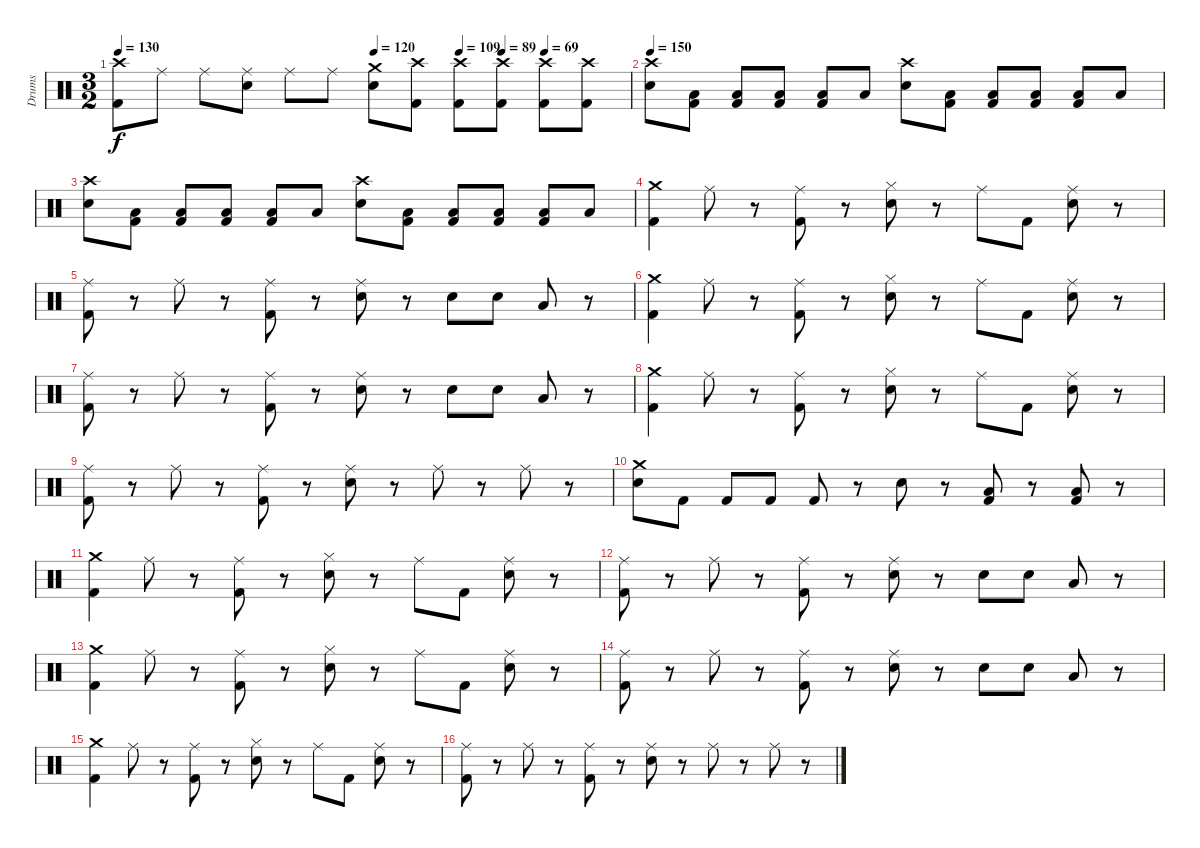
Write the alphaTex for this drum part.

\track ("Drums" "Drums") {instrument percussion}
\staff {score}
\articulation defaults
\ts (3 2)
\tempo 130
\tempo (120 0.5)
\tempo (109 0.6666666666666666)
\tempo (89 0.75)
\tempo (69 0.8333333333333334)
\clef neutral
\ks c
("Crash high (hit)" "Kick (hit) 2").8{dy f} "Ride (middle)".8 "Ride (middle)".8 ("Ride (middle)" "Electric Snare (hit)").8 "Ride (middle)".8 "Ride (middle)".8 ("Electric Snare (hit)" "Crash medium (hit)").8 ("Crash high (hit)" "Kick (hit) 2").8 ("Kick (hit) 2" "Crash high (hit)").8 ("Kick (hit) 2" "Crash high (hit)").8 ("Crash high (hit)" "Kick (hit) 2").8 ("Crash high (hit)" "Kick (hit) 2").8 |
\tempo 150
("Electric Snare (hit)" "Crash high (hit)").8 ("Kick (hit) 2" "Low Floor Tom (hit)").8 ("Kick (hit) 2" "Low Floor Tom (hit)").8 ("Kick (hit) 2" "Low Floor Tom (hit)").8 ("Kick (hit) 2" "Low Floor Tom (hit)").8 "Low Floor Tom (hit)".8 ("Electric Snare (hit)" "Crash high (hit)").8 ("Low Floor Tom (hit)" "Kick (hit) 2").8 ("Kick (hit) 2" "Low Floor Tom (hit)").8 ("Low Floor Tom (hit)" "Kick (hit) 2").8 ("Kick (hit) 2" "Low Floor Tom (hit)").8 "Low Floor Tom (hit)".8 |
("Crash high (hit)" "Electric Snare (hit)").8 ("Low Floor Tom (hit)" "Kick (hit) 2").8 ("Kick (hit) 2" "Low Floor Tom (hit)").8 ("Kick (hit) 2" "Low Floor Tom (hit)").8 ("Kick (hit) 2" "Low Floor Tom (hit)").8 "Low Floor Tom (hit)".8 ("Electric Snare (hit)" "Crash high (hit)").8 ("Kick (hit) 2" "Low Floor Tom (hit)").8 ("Kick (hit) 2" "Low Floor Tom (hit)").8 ("Kick (hit) 2" "Low Floor Tom (hit)").8 ("Low Floor Tom (hit)" "Kick (hit) 2").8 "Low Floor Tom (hit)".8 |
("Kick (hit) 2" "Crash medium (hit)").4 "Ride (middle)".8 r.8 ("Ride (middle)" "Kick (hit) 2").8 r.8 ("Electric Snare (hit)" "Hi-Hat (closed)").8 r.8 "Ride (middle)".8 "Kick (hit) 2".8 ("Electric Snare (hit)" "Ride (middle)").8 r.8 |
("Kick (hit) 2" "Ride (middle)").8 r.8 "Ride (middle)".8 r.8 ("Kick (hit) 2" "Ride (middle)").8 r.8 ("Electric Snare (hit)" "Ride (middle)").8 r.8 "Electric Snare (hit)".8 "Electric Snare (hit)".8 "Low Floor Tom (hit)".8 r.8 |
("Kick (hit) 2" "Crash medium (hit)").4 "Ride (middle)".8 r.8 ("Kick (hit) 2" "Ride (middle)").8 r.8 ("Electric Snare (hit)" "Hi-Hat (closed)").8 r.8 "Ride (middle)".8 "Kick (hit) 2".8 ("Ride (middle)" "Electric Snare (hit)").8 r.8 |
("Kick (hit) 2" "Ride (middle)").8 r.8 "Ride (middle)".8 r.8 ("Ride (middle)" "Kick (hit) 2").8 r.8 ("Electric Snare (hit)" "Ride (middle)").8 r.8 "Electric Snare (hit)".8 "Electric Snare (hit)".8 "Low Floor Tom (hit)".8 r.8 |
("Kick (hit) 2" "Crash medium (hit)").4 "Ride (middle)".8 r.8 ("Ride (middle)" "Kick (hit) 2").8 r.8 ("Hi-Hat (closed)" "Electric Snare (hit)").8 r.8 "Ride (middle)".8 "Kick (hit) 2".8 ("Ride (middle)" "Electric Snare (hit)").8 r.8 |
("Ride (middle)" "Kick (hit) 2").8 r.8 "Ride (middle)".8 r.8 ("Ride (middle)" "Kick (hit) 2").8 r.8 ("Electric Snare (hit)" "Ride (middle)").8 r.8 "Ride (middle)".8 r.8 "Ride (middle)".8 r.8 |
("Electric Snare (hit)" "Crash medium (hit)").8 "Kick (hit) 2".8 "Kick (hit) 2".8 "Kick (hit) 2".8 "Kick (hit) 2".8 r.8 "Electric Snare (hit)".8 r.8 ("Low Floor Tom (hit)" "Kick (hit) 2").8 r.8 ("Low Floor Tom (hit)" "Kick (hit) 2").8 r.8 |
("Crash medium (hit)" "Kick (hit) 2").4 "Ride (middle)".8 r.8 ("Ride (middle)" "Kick (hit) 2").8 r.8 ("Hi-Hat (closed)" "Electric Snare (hit)").8 r.8 "Ride (middle)".8 "Kick (hit) 2".8 ("Ride (middle)" "Electric Snare (hit)").8 r.8 |
("Kick (hit) 2" "Ride (middle)").8 r.8 "Ride (middle)".8 r.8 ("Kick (hit) 2" "Ride (middle)").8 r.8 ("Electric Snare (hit)" "Ride (middle)").8 r.8 "Electric Snare (hit)".8 "Electric Snare (hit)".8 "Low Floor Tom (hit)".8 r.8 |
("Crash medium (hit)" "Kick (hit) 2").4 "Ride (middle)".8 r.8 ("Kick (hit) 2" "Ride (middle)").8 r.8 ("Electric Snare (hit)" "Hi-Hat (closed)").8 r.8 "Ride (middle)".8 "Kick (hit) 2".8 ("Ride (middle)" "Electric Snare (hit)").8 r.8 |
("Kick (hit) 2" "Ride (middle)").8 r.8 "Ride (middle)".8 r.8 ("Kick (hit) 2" "Ride (middle)").8 r.8 ("Electric Snare (hit)" "Ride (middle)").8 r.8 "Electric Snare (hit)".8 "Electric Snare (hit)".8 "Low Floor Tom (hit)".8 r.8 |
("Kick (hit) 2" "Crash medium (hit)").4 "Ride (middle)".8 r.8 ("Kick (hit) 2" "Ride (middle)").8 r.8 ("Hi-Hat (closed)" "Electric Snare (hit)").8 r.8 "Ride (middle)".8 "Kick (hit) 2".8 ("Ride (middle)" "Electric Snare (hit)").8 r.8 |
("Ride (middle)" "Kick (hit) 2").8 r.8 "Ride (middle)".8 r.8 ("Kick (hit) 2" "Ride (middle)").8 r.8 ("Ride (middle)" "Electric Snare (hit)").8 r.8 "Ride (middle)".8 r.8 "Ride (middle)".8 r.8
